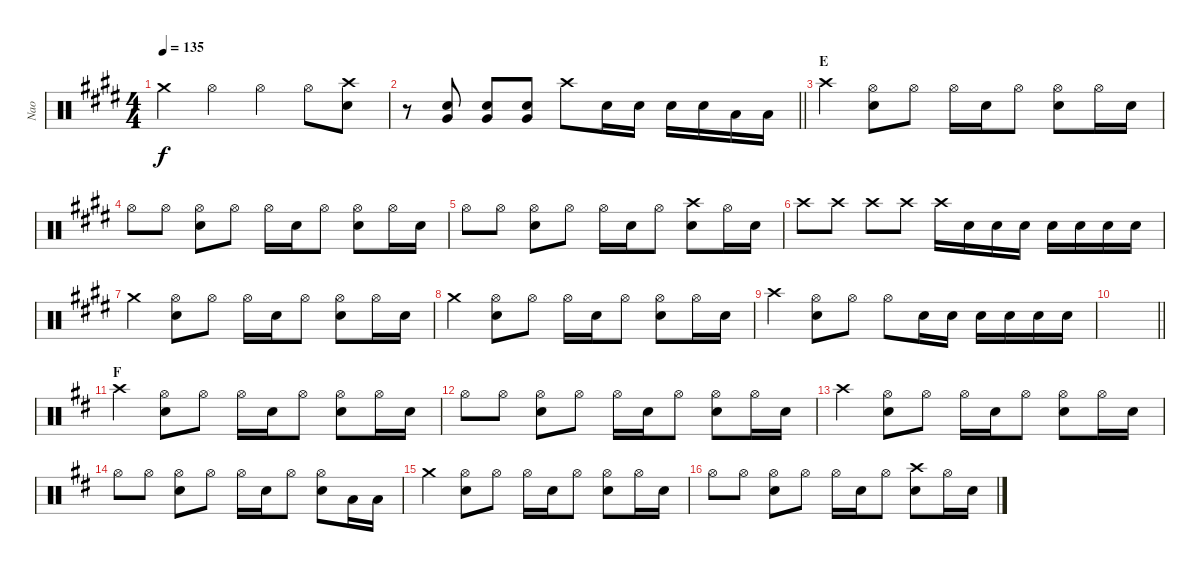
\track ("Nao" "Nao") {instrument percussion}
\staff {score}
\articulation defaults
\ts (4 4)
\tempo 135
\clef neutral
\ks e "Crash medium (hit)".4{dy f} "Hi-Hat (open)".4 "Hi-Hat (open)".4 "Hi-Hat (open)".8
("Crash high (hit)" "Snare (hit) 2").8 |
\barLineRight lightlight
r.8 ("Snare (hit) 2" "Very Low Tom (hit)").8 ("Snare (hit) 2" "Very Low Tom (hit)").8 ("Snare (hit) 2" "Very Low Tom (hit)").8 "Crash high (hit)".8 "Snare (hit) 2".16 "Snare (hit) 2".16 "Snare (hit) 2".16 "Snare (hit) 2".16 "Low Tom (hit)".16 "Low Tom (hit)".16 |
\section ("" "E")
"Crash high (hit)".4 ("Hi-Hat (open)" "Snare (hit) 2").8 "Hi-Hat (open)".8 "Hi-Hat (open)".16 "Snare (hit) 2".16 "Hi-Hat (open)".8 ("Hi-Hat (open)" "Snare (hit) 2").8 "Hi-Hat (open)".16 "Snare (hit) 2".16 |
"Hi-Hat (open)".8 "Hi-Hat (open)".8 ("Hi-Hat (open)" "Snare (hit) 2").8 "Hi-Hat (open)".8 "Hi-Hat (open)".16 "Snare (hit) 2".16 "Hi-Hat (open)".8 ("Hi-Hat (open)" "Snare (hit) 2").8 "Hi-Hat (open)".16 "Snare (hit) 2".16 |
"Hi-Hat (open)".8 "Hi-Hat (open)".8 ("Hi-Hat (open)" "Snare (hit) 2").8 "Hi-Hat (open)".8 "Hi-Hat (open)".16 "Snare (hit) 2".16 "Hi-Hat (open)".8 ("Crash high (hit)" "Snare (hit) 2").8 "Hi-Hat (open)".16 "Snare (hit) 2".16 |
"Crash high (hit)".8 "Crash high (hit)".8 "Crash high (hit)".8 "Crash high (hit)".8 "Crash high (hit)".16 "Snare (hit) 2".16 "Snare (hit) 2".16 "Snare (hit) 2".16 "Snare (hit) 2".16 "Snare (hit) 2".16 "Snare (hit) 2".16 "Snare (hit) 2".16 |
"Crash medium (hit)".4 ("Hi-Hat (open)" "Snare (hit) 2").8 "Hi-Hat (open)".8 "Hi-Hat (open)".16 "Snare (hit) 2".16 "Hi-Hat (open)".8 ("Hi-Hat (open)" "Snare (hit) 2").8 "Hi-Hat (open)".16 "Snare (hit) 2".16 |
"Crash medium (hit)".4 ("Hi-Hat (open)" "Snare (hit) 2").8 "Hi-Hat (open)".8 "Hi-Hat (open)".16 "Snare (hit) 2".16 "Hi-Hat (open)".8 ("Hi-Hat (open)" "Snare (hit) 2").8 "Hi-Hat (open)".16 "Snare (hit) 2".16 |
"Crash high (hit)".4 ("Hi-Hat (open)" "Snare (hit) 2").8 "Hi-Hat (open)".8 "Hi-Hat (open)".8 "Snare (hit) 2".16 "Snare (hit) 2".16 "Snare (hit) 2".16 "Snare (hit) 2".16 "Snare (hit) 2".16 "Snare (hit) 2".16 |
\barLineRight lightlight
|
\section ("" "F")
\ks d "Crash high (hit)".4
("Hi-Hat (open)" "Snare (hit) 2").8 "Hi-Hat (open)".8 "Hi-Hat (open)".16 "Snare (hit) 2".16 "Hi-Hat (open)".8 ("Hi-Hat (open)" "Snare (hit) 2").8 "Hi-Hat (open)".16 "Snare (hit) 2".16 |
"Hi-Hat (open)".8 "Hi-Hat (open)".8 ("Hi-Hat (open)" "Snare (hit) 2").8 "Hi-Hat (open)".8 "Hi-Hat (open)".16 "Snare (hit) 2".16 "Hi-Hat (open)".8 ("Hi-Hat (open)" "Snare (hit) 2").8 "Hi-Hat (open)".16 "Snare (hit) 2".16 |
"Crash high (hit)".4 ("Hi-Hat (open)" "Snare (hit) 2").8 "Hi-Hat (open)".8 "Hi-Hat (open)".16 "Snare (hit) 2".16 "Hi-Hat (open)".8 ("Hi-Hat (open)" "Snare (hit) 2").8 "Hi-Hat (open)".16 "Snare (hit) 2".16 |
"Hi-Hat (open)".8 "Hi-Hat (open)".8 ("Hi-Hat (open)" "Snare (hit) 2").8 "Hi-Hat (open)".8 "Hi-Hat (open)".16 "Snare (hit) 2".16 "Hi-Hat (open)".8 ("Hi-Hat (open)" "Snare (hit) 2").8 "Low Tom (hit)".16 "Low Tom (hit)".16 |
"Crash medium (hit)".4 ("Hi-Hat (open)" "Snare (hit) 2").8 "Hi-Hat (open)".8 "Hi-Hat (open)".16 "Snare (hit) 2".16 "Hi-Hat (open)".8 ("Hi-Hat (open)" "Snare (hit) 2").8 "Hi-Hat (open)".16 "Snare (hit) 2".16 |
"Hi-Hat (open)".8 "Hi-Hat (open)".8 ("Hi-Hat (open)" "Snare (hit) 2").8 "Hi-Hat (open)".8 "Hi-Hat (open)".16 "Snare (hit) 2".16 "Hi-Hat (open)".8 ("Crash high (hit)" "Snare (hit) 2").8 "Hi-Hat (open)".16 "Snare (hit) 2".16
